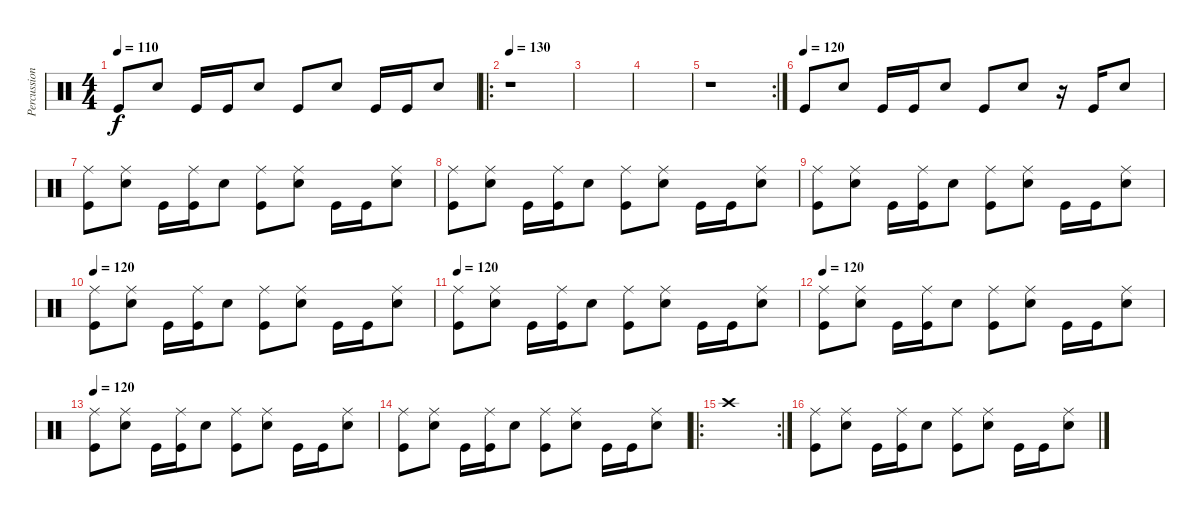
\track ("Percussions" "Percussion") {instrument percussion}
\staff {score}
\articulation defaults
\ts (4 4)
\tempo 110
\clef neutral
\ks c "Kick (hit)".8{dy f} "Electric Snare (hit)".8 "Kick (hit)".16 "Kick (hit)".16 "Electric Snare (hit)".8 "Kick (hit)".8 "Electric Snare (hit)".8 "Kick (hit)".16 "Kick (hit)".16 "Electric Snare (hit)".8
|
\ro
\tempo 130
r.1 |
|
|
\rc 2
r.1 |
\tempo (120)
"Kick (hit)".8 "Electric Snare (hit)".8 "Kick (hit)".16 "Kick (hit)".16 "Electric Snare (hit)".8 "Kick (hit)".8 "Electric Snare (hit)".8 r.16 "Kick (hit)".16 "Electric Snare (hit)".8 |
("Ride (middle)" "Kick (hit)").8 ("Ride (middle)" "Electric Snare (hit)").8 "Kick (hit)".16 ("Ride (middle)" "Kick (hit)").16 "Electric Snare (hit)".8 ("Ride (middle)" "Kick (hit)").8 ("Ride (middle)" "Electric Snare (hit)").8 "Kick (hit)".16 "Kick (hit)".16 ("Ride (middle)" "Electric Snare (hit)").8 |
("Ride (middle)" "Kick (hit)").8 ("Ride (middle)" "Electric Snare (hit)").8 "Kick (hit)".16 ("Ride (middle)" "Kick (hit)").16 "Electric Snare (hit)".8 ("Ride (middle)" "Kick (hit)").8 ("Ride (middle)" "Electric Snare (hit)").8 "Kick (hit)".16 "Kick (hit)".16 ("Ride (middle)" "Electric Snare (hit)").8 |
("Ride (middle)" "Kick (hit)").8 ("Ride (middle)" "Electric Snare (hit)").8 "Kick (hit)".16 ("Ride (middle)" "Kick (hit)").16 "Electric Snare (hit)".8 ("Ride (middle)" "Kick (hit)").8 ("Ride (middle)" "Electric Snare (hit)").8 "Kick (hit)".16 "Kick (hit)".16 ("Ride (middle)" "Electric Snare (hit)").8 |
\tempo 120
("Ride (middle)" "Kick (hit)").8 ("Ride (middle)" "Electric Snare (hit)").8 "Kick (hit)".16 ("Ride (middle)" "Kick (hit)").16 "Electric Snare (hit)".8 ("Ride (middle)" "Kick (hit)").8 ("Ride (middle)" "Electric Snare (hit)").8 "Kick (hit)".16 "Kick (hit)".16 ("Ride (middle)" "Electric Snare (hit)").8 |
\tempo 120
("Ride (middle)" "Kick (hit)").8 ("Ride (middle)" "Electric Snare (hit)").8 "Kick (hit)".16 ("Ride (middle)" "Kick (hit)").16 "Electric Snare (hit)".8 ("Ride (middle)" "Kick (hit)").8 ("Ride (middle)" "Electric Snare (hit)").8 "Kick (hit)".16 "Kick (hit)".16 ("Ride (middle)" "Electric Snare (hit)").8 |
\tempo 120
("Ride (middle)" "Kick (hit)").8 ("Ride (middle)" "Electric Snare (hit)").8 "Kick (hit)".16 ("Ride (middle)" "Kick (hit)").16 "Electric Snare (hit)".8 ("Ride (middle)" "Kick (hit)").8 ("Ride (middle)" "Electric Snare (hit)").8 "Kick (hit)".16 "Kick (hit)".16 ("Ride (middle)" "Electric Snare (hit)").8 |
\tempo 120
("Ride (middle)" "Kick (hit)").8 ("Ride (middle)" "Electric Snare (hit)").8 "Kick (hit)".16 ("Ride (middle)" "Kick (hit)").16 "Electric Snare (hit)".8 ("Ride (middle)" "Kick (hit)").8 ("Ride (middle)" "Electric Snare (hit)").8 "Kick (hit)".16 "Kick (hit)".16 ("Ride (middle)" "Electric Snare (hit)").8 |
("Ride (middle)" "Kick (hit)").8 ("Ride (middle)" "Electric Snare (hit)").8 "Kick (hit)".16 ("Ride (middle)" "Kick (hit)").16 "Electric Snare (hit)".8 ("Ride (middle)" "Kick (hit)").8 ("Ride (middle)" "Electric Snare (hit)").8 "Kick (hit)".16 "Kick (hit)".16 ("Ride (middle)" "Electric Snare (hit)").8 |
\ro
\rc 2 "Crash high (hit)".1
|
("Ride (middle)" "Kick (hit)").8 ("Ride (middle)" "Electric Snare (hit)").8 "Kick (hit)".16 ("Ride (middle)" "Kick (hit)").16 "Electric Snare (hit)".8 ("Ride (middle)" "Kick (hit)").8 ("Ride (middle)" "Electric Snare (hit)").8 "Kick (hit)".16 "Kick (hit)".16 ("Ride (middle)" "Electric Snare (hit)").8
